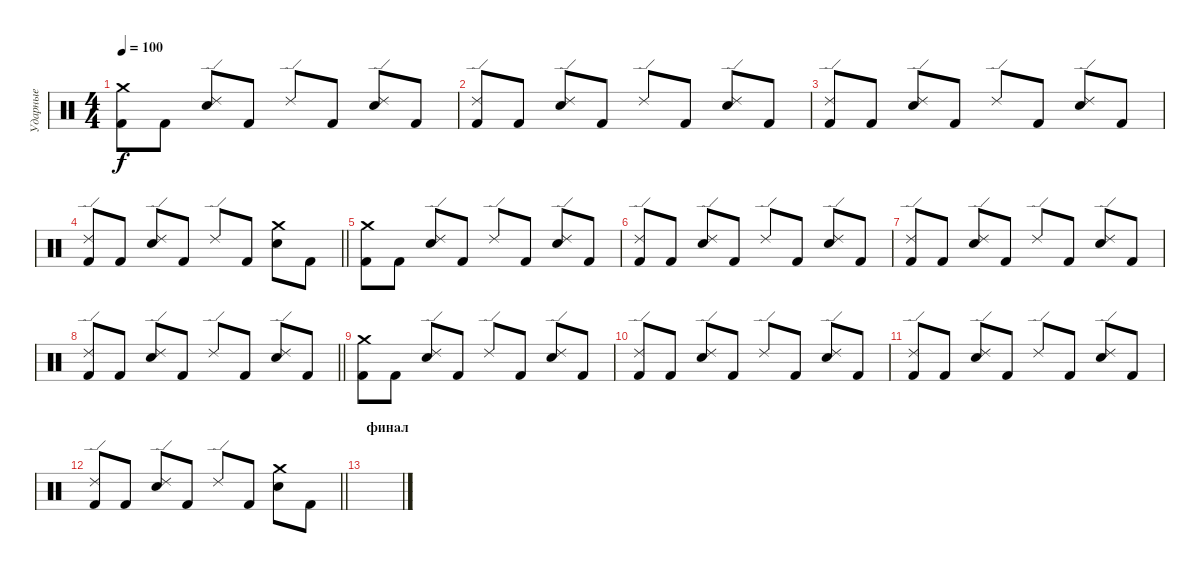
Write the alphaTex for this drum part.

\track ("Ударные" "Ударные") {instrument percussion}
\staff {score}
\articulation defaults
\ts (4 4)
\tempo 100
\clef neutral
\ks c
("Kick (hit) 2" "Crash medium (hit)").8{dy f} "Kick (hit) 2".8 ("Electric Snare (hit)" "Ride (edge) 2").8 "Kick (hit) 2".8 "Ride (edge) 2".8 "Kick (hit) 2".8 ("Electric Snare (hit)" "Ride (edge) 2").8 "Kick (hit) 2".8 |
("Kick (hit) 2" "Ride (edge) 2").8 "Kick (hit) 2".8 ("Electric Snare (hit)" "Ride (edge) 2").8 "Kick (hit) 2".8 "Ride (edge) 2".8 "Kick (hit) 2".8 ("Electric Snare (hit)" "Ride (edge) 2").8 "Kick (hit) 2".8 |
("Kick (hit) 2" "Ride (edge) 2").8 "Kick (hit) 2".8 ("Electric Snare (hit)" "Ride (edge) 2").8 "Kick (hit) 2".8 "Ride (edge) 2".8 "Kick (hit) 2".8 ("Electric Snare (hit)" "Ride (edge) 2").8 "Kick (hit) 2".8 |
\barLineRight lightlight
("Kick (hit) 2" "Ride (edge) 2").8 "Kick (hit) 2".8 ("Electric Snare (hit)" "Ride (edge) 2").8 "Kick (hit) 2".8 "Ride (edge) 2".8 "Kick (hit) 2".8 ("Electric Snare (hit)" "Crash medium (hit)").8 "Kick (hit) 2".8 |
("Kick (hit) 2" "Crash medium (hit)").8 "Kick (hit) 2".8 ("Electric Snare (hit)" "Ride (edge) 2").8 "Kick (hit) 2".8 "Ride (edge) 2".8 "Kick (hit) 2".8 ("Electric Snare (hit)" "Ride (edge) 2").8 "Kick (hit) 2".8 |
("Kick (hit) 2" "Ride (edge) 2").8 "Kick (hit) 2".8 ("Electric Snare (hit)" "Ride (edge) 2").8 "Kick (hit) 2".8 "Ride (edge) 2".8 "Kick (hit) 2".8 ("Electric Snare (hit)" "Ride (edge) 2").8 "Kick (hit) 2".8 |
("Kick (hit) 2" "Ride (edge) 2").8 "Kick (hit) 2".8 ("Electric Snare (hit)" "Ride (edge) 2").8 "Kick (hit) 2".8 "Ride (edge) 2".8 "Kick (hit) 2".8 ("Electric Snare (hit)" "Ride (edge) 2").8 "Kick (hit) 2".8 |
\barLineRight lightlight
("Kick (hit) 2" "Ride (edge) 2").8 "Kick (hit) 2".8 ("Electric Snare (hit)" "Ride (edge) 2").8 "Kick (hit) 2".8 "Ride (edge) 2".8 "Kick (hit) 2".8 ("Electric Snare (hit)" "Ride (edge) 2").8 "Kick (hit) 2".8 |
("Kick (hit) 2" "Crash medium (hit)").8 "Kick (hit) 2".8 ("Electric Snare (hit)" "Ride (edge) 2").8 "Kick (hit) 2".8 "Ride (edge) 2".8 "Kick (hit) 2".8 ("Electric Snare (hit)" "Ride (edge) 2").8 "Kick (hit) 2".8 |
("Kick (hit) 2" "Ride (edge) 2").8 "Kick (hit) 2".8 ("Electric Snare (hit)" "Ride (edge) 2").8 "Kick (hit) 2".8 "Ride (edge) 2".8 "Kick (hit) 2".8 ("Electric Snare (hit)" "Ride (edge) 2").8 "Kick (hit) 2".8 |
("Kick (hit) 2" "Ride (edge) 2").8 "Kick (hit) 2".8 ("Electric Snare (hit)" "Ride (edge) 2").8 "Kick (hit) 2".8 "Ride (edge) 2".8 "Kick (hit) 2".8 ("Electric Snare (hit)" "Ride (edge) 2").8 "Kick (hit) 2".8 |
\barLineRight lightlight
("Kick (hit) 2" "Ride (edge) 2").8 "Kick (hit) 2".8 ("Electric Snare (hit)" "Ride (edge) 2").8 "Kick (hit) 2".8 "Ride (edge) 2".8 "Kick (hit) 2".8 ("Electric Snare (hit)" "Crash medium (hit)").8 "Kick (hit) 2".8 |
\section ("" "финал")
